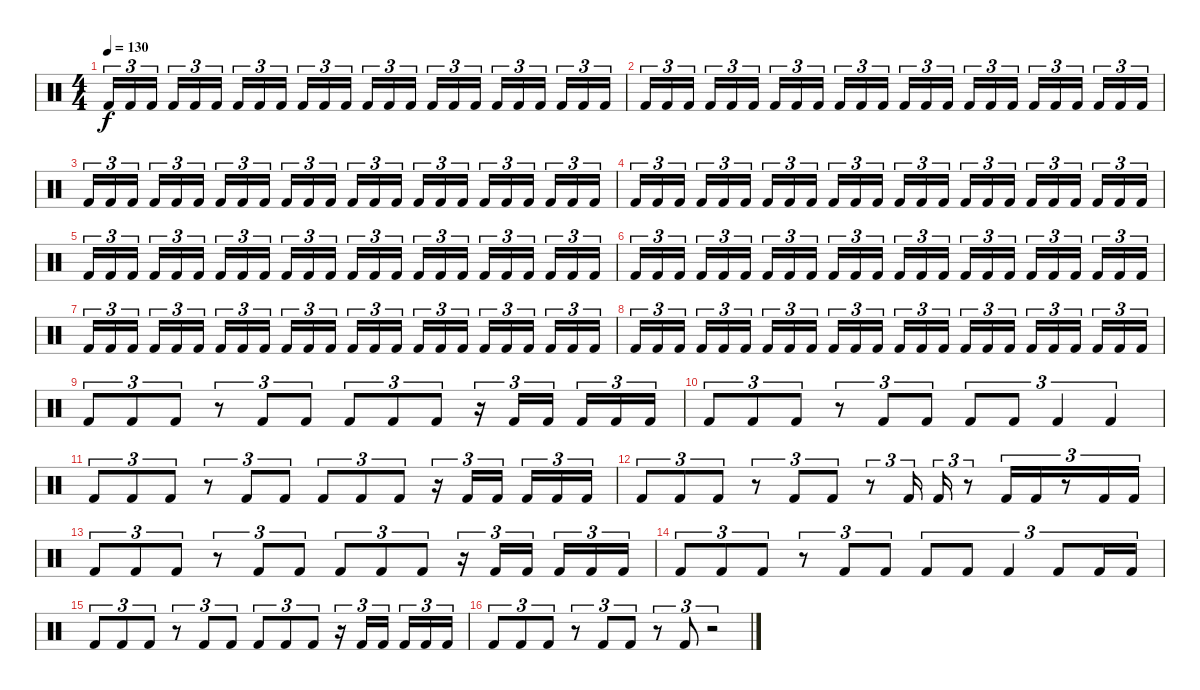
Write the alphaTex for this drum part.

\track "" {instrument percussion}
\staff {score}
\articulation defaults
\ts (4 4)
\tempo 130
\clef neutral
\ks c "Kick (hit) 2".16{tu (3 2) dy f} "Kick (hit) 2".16{tu (3 2)} "Kick (hit) 2".16{tu (3 2)} "Kick (hit) 2".16{tu (3 2)} "Kick (hit) 2".16{tu (3 2)} "Kick (hit) 2".16{tu (3 2)} "Kick (hit) 2".16{tu (3 2)} "Kick (hit) 2".16{tu (3 2)} "Kick (hit) 2".16{tu (3 2)} "Kick (hit) 2".16{tu (3 2)} "Kick (hit) 2".16{tu (3 2)} "Kick (hit) 2".16{tu (3 2)} "Kick (hit) 2".16{tu (3 2)} "Kick (hit) 2".16{tu (3 2)} "Kick (hit) 2".16{tu (3 2)} "Kick (hit) 2".16{tu (3 2)} "Kick (hit) 2".16{tu (3 2)} "Kick (hit) 2".16{tu (3 2)} "Kick (hit) 2".16{tu (3 2)} "Kick (hit) 2".16{tu (3 2)} "Kick (hit) 2".16{tu (3 2)} "Kick (hit) 2".16{tu (3 2)} "Kick (hit) 2".16{tu (3 2)} "Kick (hit) 2".16{tu (3 2)}
|
"Kick (hit) 2".16{tu (3 2)} "Kick (hit) 2".16{tu (3 2)} "Kick (hit) 2".16{tu (3 2)} "Kick (hit) 2".16{tu (3 2)} "Kick (hit) 2".16{tu (3 2)} "Kick (hit) 2".16{tu (3 2)} "Kick (hit) 2".16{tu (3 2)} "Kick (hit) 2".16{tu (3 2)} "Kick (hit) 2".16{tu (3 2)} "Kick (hit) 2".16{tu (3 2)} "Kick (hit) 2".16{tu (3 2)} "Kick (hit) 2".16{tu (3 2)} "Kick (hit) 2".16{tu (3 2)} "Kick (hit) 2".16{tu (3 2)} "Kick (hit) 2".16{tu (3 2)} "Kick (hit) 2".16{tu (3 2)} "Kick (hit) 2".16{tu (3 2)} "Kick (hit) 2".16{tu (3 2)} "Kick (hit) 2".16{tu (3 2)} "Kick (hit) 2".16{tu (3 2)} "Kick (hit) 2".16{tu (3 2)} "Kick (hit) 2".16{tu (3 2)} "Kick (hit) 2".16{tu (3 2)} "Kick (hit) 2".16{tu (3 2)} |
"Kick (hit) 2".16{tu (3 2)} "Kick (hit) 2".16{tu (3 2)} "Kick (hit) 2".16{tu (3 2)} "Kick (hit) 2".16{tu (3 2)} "Kick (hit) 2".16{tu (3 2)} "Kick (hit) 2".16{tu (3 2)} "Kick (hit) 2".16{tu (3 2)} "Kick (hit) 2".16{tu (3 2)} "Kick (hit) 2".16{tu (3 2)} "Kick (hit) 2".16{tu (3 2)} "Kick (hit) 2".16{tu (3 2)} "Kick (hit) 2".16{tu (3 2)} "Kick (hit) 2".16{tu (3 2)} "Kick (hit) 2".16{tu (3 2)} "Kick (hit) 2".16{tu (3 2)} "Kick (hit) 2".16{tu (3 2)} "Kick (hit) 2".16{tu (3 2)} "Kick (hit) 2".16{tu (3 2)} "Kick (hit) 2".16{tu (3 2)} "Kick (hit) 2".16{tu (3 2)} "Kick (hit) 2".16{tu (3 2)} "Kick (hit) 2".16{tu (3 2)} "Kick (hit) 2".16{tu (3 2)} "Kick (hit) 2".16{tu (3 2)} |
"Kick (hit) 2".16{tu (3 2)} "Kick (hit) 2".16{tu (3 2)} "Kick (hit) 2".16{tu (3 2)} "Kick (hit) 2".16{tu (3 2)} "Kick (hit) 2".16{tu (3 2)} "Kick (hit) 2".16{tu (3 2)} "Kick (hit) 2".16{tu (3 2)} "Kick (hit) 2".16{tu (3 2)} "Kick (hit) 2".16{tu (3 2)} "Kick (hit) 2".16{tu (3 2)} "Kick (hit) 2".16{tu (3 2)} "Kick (hit) 2".16{tu (3 2)} "Kick (hit) 2".16{tu (3 2)} "Kick (hit) 2".16{tu (3 2)} "Kick (hit) 2".16{tu (3 2)} "Kick (hit) 2".16{tu (3 2)} "Kick (hit) 2".16{tu (3 2)} "Kick (hit) 2".16{tu (3 2)} "Kick (hit) 2".16{tu (3 2)} "Kick (hit) 2".16{tu (3 2)} "Kick (hit) 2".16{tu (3 2)} "Kick (hit) 2".16{tu (3 2)} "Kick (hit) 2".16{tu (3 2)} "Kick (hit) 2".16{tu (3 2)} |
"Kick (hit) 2".16{tu (3 2)} "Kick (hit) 2".16{tu (3 2)} "Kick (hit) 2".16{tu (3 2)} "Kick (hit) 2".16{tu (3 2)} "Kick (hit) 2".16{tu (3 2)} "Kick (hit) 2".16{tu (3 2)} "Kick (hit) 2".16{tu (3 2)} "Kick (hit) 2".16{tu (3 2)} "Kick (hit) 2".16{tu (3 2)} "Kick (hit) 2".16{tu (3 2)} "Kick (hit) 2".16{tu (3 2)} "Kick (hit) 2".16{tu (3 2)} "Kick (hit) 2".16{tu (3 2)} "Kick (hit) 2".16{tu (3 2)} "Kick (hit) 2".16{tu (3 2)} "Kick (hit) 2".16{tu (3 2)} "Kick (hit) 2".16{tu (3 2)} "Kick (hit) 2".16{tu (3 2)} "Kick (hit) 2".16{tu (3 2)} "Kick (hit) 2".16{tu (3 2)} "Kick (hit) 2".16{tu (3 2)} "Kick (hit) 2".16{tu (3 2)} "Kick (hit) 2".16{tu (3 2)} "Kick (hit) 2".16{tu (3 2)} |
"Kick (hit) 2".16{tu (3 2)} "Kick (hit) 2".16{tu (3 2)} "Kick (hit) 2".16{tu (3 2)} "Kick (hit) 2".16{tu (3 2)} "Kick (hit) 2".16{tu (3 2)} "Kick (hit) 2".16{tu (3 2)} "Kick (hit) 2".16{tu (3 2)} "Kick (hit) 2".16{tu (3 2)} "Kick (hit) 2".16{tu (3 2)} "Kick (hit) 2".16{tu (3 2)} "Kick (hit) 2".16{tu (3 2)} "Kick (hit) 2".16{tu (3 2)} "Kick (hit) 2".16{tu (3 2)} "Kick (hit) 2".16{tu (3 2)} "Kick (hit) 2".16{tu (3 2)} "Kick (hit) 2".16{tu (3 2)} "Kick (hit) 2".16{tu (3 2)} "Kick (hit) 2".16{tu (3 2)} "Kick (hit) 2".16{tu (3 2)} "Kick (hit) 2".16{tu (3 2)} "Kick (hit) 2".16{tu (3 2)} "Kick (hit) 2".16{tu (3 2)} "Kick (hit) 2".16{tu (3 2)} "Kick (hit) 2".16{tu (3 2)} |
"Kick (hit) 2".16{tu (3 2)} "Kick (hit) 2".16{tu (3 2)} "Kick (hit) 2".16{tu (3 2)} "Kick (hit) 2".16{tu (3 2)} "Kick (hit) 2".16{tu (3 2)} "Kick (hit) 2".16{tu (3 2)} "Kick (hit) 2".16{tu (3 2)} "Kick (hit) 2".16{tu (3 2)} "Kick (hit) 2".16{tu (3 2)} "Kick (hit) 2".16{tu (3 2)} "Kick (hit) 2".16{tu (3 2)} "Kick (hit) 2".16{tu (3 2)} "Kick (hit) 2".16{tu (3 2)} "Kick (hit) 2".16{tu (3 2)} "Kick (hit) 2".16{tu (3 2)} "Kick (hit) 2".16{tu (3 2)} "Kick (hit) 2".16{tu (3 2)} "Kick (hit) 2".16{tu (3 2)} "Kick (hit) 2".16{tu (3 2)} "Kick (hit) 2".16{tu (3 2)} "Kick (hit) 2".16{tu (3 2)} "Kick (hit) 2".16{tu (3 2)} "Kick (hit) 2".16{tu (3 2)} "Kick (hit) 2".16{tu (3 2)} |
"Kick (hit) 2".16{tu (3 2)} "Kick (hit) 2".16{tu (3 2)} "Kick (hit) 2".16{tu (3 2)} "Kick (hit) 2".16{tu (3 2)} "Kick (hit) 2".16{tu (3 2)} "Kick (hit) 2".16{tu (3 2)} "Kick (hit) 2".16{tu (3 2)} "Kick (hit) 2".16{tu (3 2)} "Kick (hit) 2".16{tu (3 2)} "Kick (hit) 2".16{tu (3 2)} "Kick (hit) 2".16{tu (3 2)} "Kick (hit) 2".16{tu (3 2)} "Kick (hit) 2".16{tu (3 2)} "Kick (hit) 2".16{tu (3 2)} "Kick (hit) 2".16{tu (3 2)} "Kick (hit) 2".16{tu (3 2)} "Kick (hit) 2".16{tu (3 2)} "Kick (hit) 2".16{tu (3 2)} "Kick (hit) 2".16{tu (3 2)} "Kick (hit) 2".16{tu (3 2)} "Kick (hit) 2".16{tu (3 2)} "Kick (hit) 2".16{tu (3 2)} "Kick (hit) 2".16{tu (3 2)} "Kick (hit) 2".16{tu (3 2)} |
"Kick (hit) 2".8{tu (3 2)} "Kick (hit) 2".8{tu (3 2)} "Kick (hit) 2".8{tu (3 2)} r.8{tu (3 2)} "Kick (hit) 2".8{tu (3 2)} "Kick (hit) 2".8{tu (3 2)} "Kick (hit) 2".8{tu (3 2)} "Kick (hit) 2".8{tu (3 2)} "Kick (hit) 2".8{tu (3 2)} r.16{tu (3 2)} "Kick (hit) 2".16{tu (3 2)} "Kick (hit) 2".16{tu (3 2)} "Kick (hit) 2".16{tu (3 2)} "Kick (hit) 2".16{tu (3 2)} "Kick (hit) 2".16{tu (3 2)} |
"Kick (hit) 2".8{tu (3 2)} "Kick (hit) 2".8{tu (3 2)} "Kick (hit) 2".8{tu (3 2)} r.8{tu (3 2)} "Kick (hit) 2".8{tu (3 2)} "Kick (hit) 2".8{tu (3 2)} "Kick (hit) 2".8{tu (3 2)} "Kick (hit) 2".8{tu (3 2)} "Kick (hit) 2".4{tu (3 2)} "Kick (hit) 2".4{tu (3 2)} |
"Kick (hit) 2".8{tu (3 2)} "Kick (hit) 2".8{tu (3 2)} "Kick (hit) 2".8{tu (3 2)} r.8{tu (3 2)} "Kick (hit) 2".8{tu (3 2)} "Kick (hit) 2".8{tu (3 2)} "Kick (hit) 2".8{tu (3 2)} "Kick (hit) 2".8{tu (3 2)} "Kick (hit) 2".8{tu (3 2)} r.16{tu (3 2)} "Kick (hit) 2".16{tu (3 2)} "Kick (hit) 2".16{tu (3 2)} "Kick (hit) 2".16{tu (3 2)} "Kick (hit) 2".16{tu (3 2)} "Kick (hit) 2".16{tu (3 2)} |
"Kick (hit) 2".8{tu (3 2)} "Kick (hit) 2".8{tu (3 2)} "Kick (hit) 2".8{tu (3 2)} r.8{tu (3 2)} "Kick (hit) 2".8{tu (3 2)} "Kick (hit) 2".8{tu (3 2)} r.8{tu (3 2)} "Kick (hit) 2".16{tu (3 2)} "Kick (hit) 2".16{tu (3 2)} r.8{tu (3 2)} "Kick (hit) 2".16{tu (3 2)} "Kick (hit) 2".16{tu (3 2)} r.8{tu (3 2)} "Kick (hit) 2".16{tu (3 2)} "Kick (hit) 2".16{tu (3 2)} |
"Kick (hit) 2".8{tu (3 2)} "Kick (hit) 2".8{tu (3 2)} "Kick (hit) 2".8{tu (3 2)} r.8{tu (3 2)} "Kick (hit) 2".8{tu (3 2)} "Kick (hit) 2".8{tu (3 2)} "Kick (hit) 2".8{tu (3 2)} "Kick (hit) 2".8{tu (3 2)} "Kick (hit) 2".8{tu (3 2)} r.16{tu (3 2)} "Kick (hit) 2".16{tu (3 2)} "Kick (hit) 2".16{tu (3 2)} "Kick (hit) 2".16{tu (3 2)} "Kick (hit) 2".16{tu (3 2)} "Kick (hit) 2".16{tu (3 2)} |
"Kick (hit) 2".8{tu (3 2)} "Kick (hit) 2".8{tu (3 2)} "Kick (hit) 2".8{tu (3 2)} r.8{tu (3 2)} "Kick (hit) 2".8{tu (3 2)} "Kick (hit) 2".8{tu (3 2)} "Kick (hit) 2".8{tu (3 2)} "Kick (hit) 2".8{tu (3 2)} "Kick (hit) 2".4{tu (3 2)} "Kick (hit) 2".8{tu (3 2)} "Kick (hit) 2".16{tu (3 2)} "Kick (hit) 2".16{tu (3 2)} |
"Kick (hit) 2".8{tu (3 2)} "Kick (hit) 2".8{tu (3 2)} "Kick (hit) 2".8{tu (3 2)} r.8{tu (3 2)} "Kick (hit) 2".8{tu (3 2)} "Kick (hit) 2".8{tu (3 2)} "Kick (hit) 2".8{tu (3 2)} "Kick (hit) 2".8{tu (3 2)} "Kick (hit) 2".8{tu (3 2)} r.16{tu (3 2)} "Kick (hit) 2".16{tu (3 2)} "Kick (hit) 2".16{tu (3 2)} "Kick (hit) 2".16{tu (3 2)} "Kick (hit) 2".16{tu (3 2)} "Kick (hit) 2".16{tu (3 2)} |
"Kick (hit) 2".8{tu (3 2)} "Kick (hit) 2".8{tu (3 2)} "Kick (hit) 2".8{tu (3 2)} r.8{tu (3 2)} "Kick (hit) 2".8{tu (3 2)} "Kick (hit) 2".8{tu (3 2)} r.8{tu (3 2)} "Kick (hit) 2".8{tu (3 2)} r.2{tu (3 2)}
